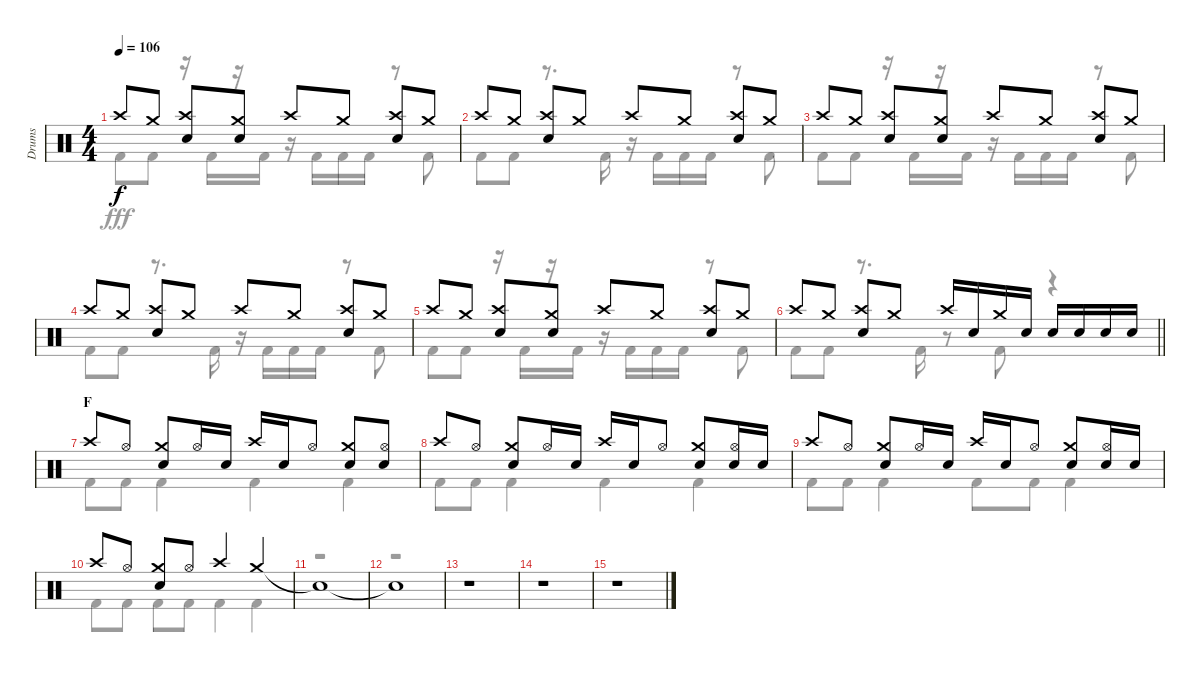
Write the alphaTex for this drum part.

\track ("Drums" "Drums") {instrument percussion}
\staff {score}
\articulation defaults
\voice
\ts (4 4)
\tempo 106
\clef neutral
\ks c "Crash high (hit)".8{dy f} "Crash medium (hit)".8
("Crash high (hit)" "Snare (hit) 2").8 ("Crash medium (hit)" "Snare (hit) 2").8 "Crash high (hit)".8 "Crash medium (hit)".8 ("Crash high (hit)" "Snare (hit) 2").8 "Crash medium (hit)".8 |
"Crash high (hit)".8 "Crash medium (hit)".8 ("Crash high (hit)" "Snare (hit) 2").8 "Crash medium (hit)".8 "Crash high (hit)".8 "Crash medium (hit)".8 ("Crash high (hit)" "Snare (hit) 2").8 "Crash medium (hit)".8 |
"Crash high (hit)".8 "Crash medium (hit)".8 ("Crash high (hit)" "Snare (hit) 2").8 ("Crash medium (hit)" "Snare (hit) 2").8 "Crash high (hit)".8 "Crash medium (hit)".8 ("Crash high (hit)" "Snare (hit) 2").8 "Crash medium (hit)".8 |
"Crash high (hit)".8 "Crash medium (hit)".8 ("Crash high (hit)" "Snare (hit) 2").8 "Crash medium (hit)".8 "Crash high (hit)".8 "Crash medium (hit)".8 ("Crash high (hit)" "Snare (hit) 2").8 "Crash medium (hit)".8 |
"Crash high (hit)".8 "Crash medium (hit)".8 ("Crash high (hit)" "Snare (hit) 2").8 ("Crash medium (hit)" "Snare (hit) 2").8 "Crash high (hit)".8 "Crash medium (hit)".8 ("Crash high (hit)" "Snare (hit) 2").8 "Crash medium (hit)".8 |
\barLineRight lightlight "Crash high (hit)".8 "Crash medium (hit)".8
("Crash high (hit)" "Snare (hit) 2").8 "Crash medium (hit)".8 "Crash high (hit)".16 "Snare (hit) 2".16 "Crash medium (hit)".16 "Snare (hit) 2".16 "Snare (hit) 2".16 "Snare (hit) 2".16 "Snare (hit) 2".16 "Snare (hit) 2".16 |
\section ("" "F")
"Crash high (hit)".8 "Hi-Hat (open)".8 ("Crash medium (hit)" "Snare (hit) 2").8 "Hi-Hat (open)".16 "Snare (hit) 2".16 "Crash high (hit)".16 "Snare (hit) 2".16 "Hi-Hat (open)".8 ("Crash medium (hit)" "Snare (hit) 2").8 ("Hi-Hat (open)" "Snare (hit) 2").8 |
"Crash high (hit)".8 "Hi-Hat (open)".8 ("Crash medium (hit)" "Snare (hit) 2").8 "Hi-Hat (open)".16 "Snare (hit) 2".16 "Crash high (hit)".16 "Snare (hit) 2".16 "Hi-Hat (open)".8 ("Crash medium (hit)" "Snare (hit) 2").8 ("Hi-Hat (open)" "Snare (hit) 2").16 "Snare (hit) 2".16 |
"Crash high (hit)".8 "Hi-Hat (open)".8 ("Crash medium (hit)" "Snare (hit) 2").8 "Hi-Hat (open)".16 "Snare (hit) 2".16 "Crash high (hit)".16 "Snare (hit) 2".16 "Hi-Hat (open)".8 ("Crash medium (hit)" "Snare (hit) 2").8 ("Hi-Hat (open)" "Snare (hit) 2").16 "Snare (hit) 2".16 |
"Crash high (hit)".8 "Hi-Hat (open)".8 ("Crash medium (hit)" "Snare (hit) 2").8 "Hi-Hat (open)".8 "Crash high (hit)".4 "Crash medium (hit)".4 |
"Snare (hit)"{t}.1 |
"Snare (hit)"{t}.1 |
r.1 |
r.1 |
r.1
\voice
\clef neutral
\ottava regular
\simile none
\ks c "Kick (hit) 2".8{dy fff} "Kick (hit) 2".8
r.16 "Kick (hit) 2".16 r.16 "Kick (hit) 2".16 r.16 "Kick (hit) 2".16 "Kick (hit) 2".16 "Kick (hit) 2".16 r.8 "Kick (hit) 2".8 |
"Kick (hit) 2".8 "Kick (hit) 2".8 r.8{d} "Kick (hit) 2".16 r.16 "Kick (hit) 2".16 "Kick (hit) 2".16 "Kick (hit) 2".16 r.8 "Kick (hit) 2".8 |
"Kick (hit) 2".8 "Kick (hit) 2".8 r.16 "Kick (hit) 2".16 r.16 "Kick (hit) 2".16 r.16 "Kick (hit) 2".16 "Kick (hit) 2".16 "Kick (hit) 2".16 r.8 "Kick (hit) 2".8 |
"Kick (hit) 2".8 "Kick (hit) 2".8 r.8{d} "Kick (hit) 2".16 r.16 "Kick (hit) 2".16 "Kick (hit) 2".16 "Kick (hit) 2".16 r.8 "Kick (hit) 2".8 |
"Kick (hit) 2".8 "Kick (hit) 2".8 r.16 "Kick (hit) 2".16 r.16 "Kick (hit) 2".16 r.16 "Kick (hit) 2".16 "Kick (hit) 2".16 "Kick (hit) 2".16 r.8 "Kick (hit) 2".8 |
\barLineRight lightlight "Kick (hit) 2".8 "Kick (hit) 2".8
r.8{d} "Kick (hit) 2".16 r.8 "Kick (hit) 2".8 r.4 |
"Kick (hit) 2".8 "Kick (hit) 2".8 "Kick (hit) 2".4 "Kick (hit) 2".4 "Kick (hit) 2".4 |
"Kick (hit) 2".8 "Kick (hit) 2".8 "Kick (hit) 2".4 "Kick (hit) 2".4 "Kick (hit) 2".4 |
"Kick (hit) 2".8 "Kick (hit) 2".8 "Kick (hit) 2".4 "Kick (hit) 2".8 "Kick (hit) 2".8 "Kick (hit) 2".4 |
"Kick (hit) 2".8 "Kick (hit) 2".8 "Kick (hit) 2".8 "Kick (hit) 2".8 "Kick (hit) 2".4 "Kick (hit) 2".4 |
r.1 |
r.1 |
r.1 |
r.1 |
r.1
